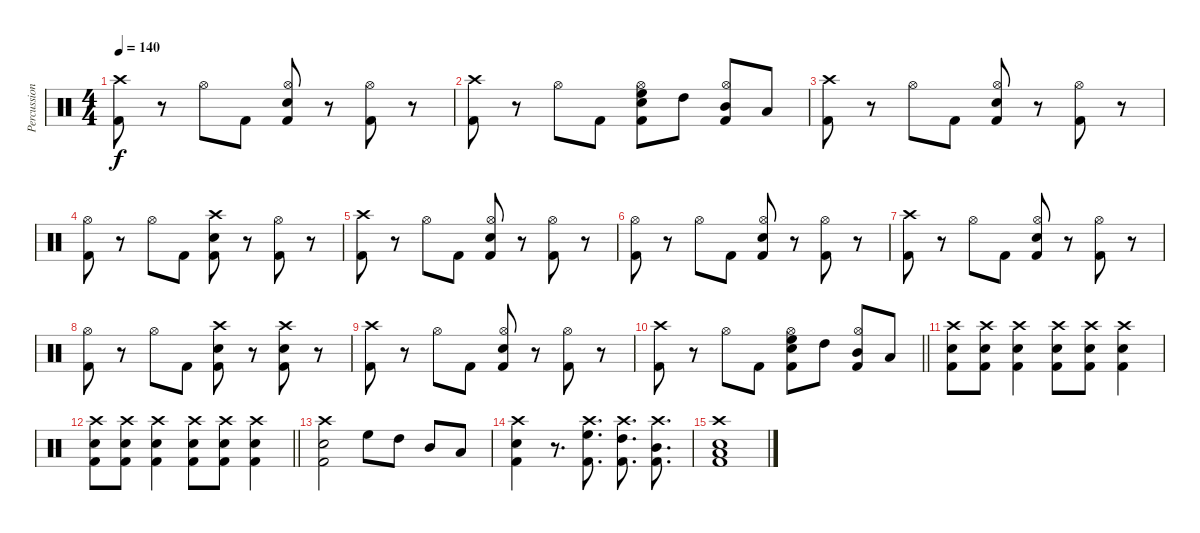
\track ("Percussion" "Percussion") {instrument percussion}
\staff
\articulation defaults
\ts (4 4)
\tempo 140
\clef neutral
\ks c
("Crash high (hit)" "Kick (hit) 2").8{dy f} r.8 "Hi-Hat (open)".8 "Kick (hit) 2".8 ("Hi-Hat (open)" "Snare (hit) 2" "Kick (hit) 2").8 r.8 ("Hi-Hat (open)" "Kick (hit) 2").8 r.8 |
("Crash high (hit)" "Kick (hit) 2").8 r.8 "Hi-Hat (open)".8 "Kick (hit) 2".8 ("Hi-Hat (open)" "High Floor Tom (hit)" "Snare (hit) 2" "Kick (hit) 2").8 "High Tom (hit)".8 ("Hi-Hat (open)" "Mid Tom (hit)" "Kick (hit) 2").8 "Low Tom (hit)".8 |
("Crash high (hit)" "Kick (hit) 2").8 r.8 "Hi-Hat (open)".8 "Kick (hit) 2".8 ("Hi-Hat (open)" "Snare (hit) 2" "Kick (hit) 2").8 r.8 ("Hi-Hat (open)" "Kick (hit) 2").8 r.8 |
("Hi-Hat (open)" "Kick (hit) 2").8 r.8 "Hi-Hat (open)".8 "Kick (hit) 2".8 ("Crash high (hit)" "Snare (hit) 2" "Kick (hit) 2").8 r.8 ("Hi-Hat (open)" "Kick (hit) 2").8 r.8 |
("Crash high (hit)" "Kick (hit) 2").8 r.8 "Hi-Hat (open)".8 "Kick (hit) 2".8 ("Hi-Hat (open)" "Snare (hit) 2" "Kick (hit) 2").8 r.8 ("Hi-Hat (open)" "Kick (hit) 2").8 r.8 |
("Hi-Hat (open)" "Kick (hit) 2").8 r.8 "Hi-Hat (open)".8 "Kick (hit) 2".8 ("Hi-Hat (open)" "Snare (hit) 2" "Kick (hit) 2").8 r.8 ("Hi-Hat (open)" "Kick (hit) 2").8 r.8 |
("Crash high (hit)" "Kick (hit) 2").8 r.8 "Hi-Hat (open)".8 "Kick (hit) 2".8 ("Hi-Hat (open)" "Snare (hit) 2" "Kick (hit) 2").8 r.8 ("Hi-Hat (open)" "Kick (hit) 2").8 r.8 |
("Hi-Hat (open)" "Kick (hit) 2").8 r.8 "Hi-Hat (open)".8 "Kick (hit) 2".8 ("Crash high (hit)" "Snare (hit) 2" "Kick (hit) 2").8 r.8 ("Crash high (hit)" "Snare (hit) 2" "Kick (hit) 2").8 r.8 |
("Crash high (hit)" "Kick (hit) 2").8 r.8 "Hi-Hat (open)".8 "Kick (hit) 2".8 ("Hi-Hat (open)" "Snare (hit) 2" "Kick (hit) 2").8 r.8 ("Hi-Hat (open)" "Kick (hit) 2").8 r.8 |
\barLineRight lightlight
("Crash high (hit)" "Kick (hit) 2").8 r.8 "Hi-Hat (open)".8 "Kick (hit) 2".8 ("Hi-Hat (open)" "High Floor Tom (hit)" "Snare (hit) 2" "Kick (hit) 2").8 "High Tom (hit)".8 ("Hi-Hat (open)" "Mid Tom (hit)" "Kick (hit) 2").8 "Low Tom (hit)".8 |
("Crash high (hit)" "Snare (hit) 2" "Kick (hit) 2").8 ("Crash high (hit)" "Snare (hit) 2" "Kick (hit) 2").8 ("Crash high (hit)" "Snare (hit) 2" "Kick (hit) 2").4 ("Crash high (hit)" "Snare (hit) 2" "Kick (hit) 2").8 ("Crash high (hit)" "Snare (hit) 2" "Kick (hit) 2").8 ("Crash high (hit)" "Snare (hit) 2" "Kick (hit) 2").4 |
\barLineRight lightlight
("Crash high (hit)" "Snare (hit) 2" "Kick (hit) 2").8 ("Crash high (hit)" "Snare (hit) 2" "Kick (hit) 2").8 ("Crash high (hit)" "Snare (hit) 2" "Kick (hit) 2").4 ("Crash high (hit)" "Snare (hit) 2" "Kick (hit) 2").8 ("Crash high (hit)" "Snare (hit) 2" "Kick (hit) 2").8 ("Crash high (hit)" "Snare (hit) 2" "Kick (hit) 2").4 |
("Crash high (hit)" "Snare (hit) 2" "Kick (hit) 2").2 "High Floor Tom (hit)".8 "High Tom (hit)".8 "Mid Tom (hit)".8 "Low Tom (hit)".8 |
("Crash high (hit)" "Snare (hit) 2" "Kick (hit) 2").4 r.8{d} ("Crash high (hit)" "High Floor Tom (hit)" "Kick (hit) 2").8{d} ("Crash high (hit)" "High Tom (hit)" "Kick (hit) 2").8{d} ("Crash high (hit)" "Mid Tom (hit)" "Kick (hit) 2").8{d} |
("Crash high (hit)" "Snare (hit) 2" "Low Tom (hit)" "Kick (hit) 2").1
